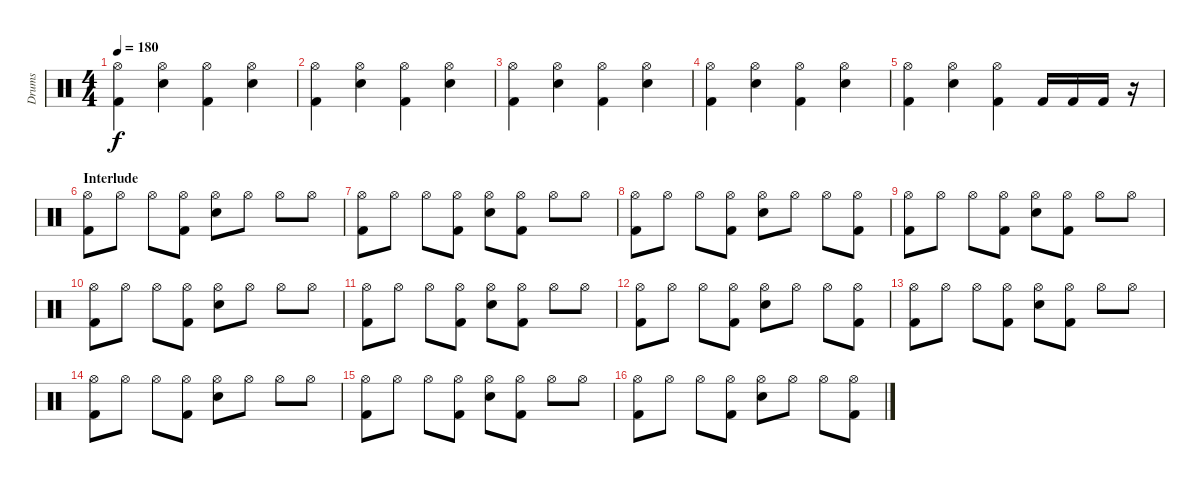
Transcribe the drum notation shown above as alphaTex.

\track ("Drums" "Drums") {instrument percussion}
\staff {score}
\articulation defaults
\ts (4 4)
\tempo 180
\clef neutral
\ks c
("Hi-Hat (open)" "Kick (hit) 2").4{dy f} ("Hi-Hat (open)" "Electric Snare (hit)").4 ("Hi-Hat (open)" "Kick (hit) 2").4 ("Hi-Hat (open)" "Electric Snare (hit)").4 |
("Hi-Hat (open)" "Kick (hit) 2").4 ("Hi-Hat (open)" "Electric Snare (hit)").4 ("Hi-Hat (open)" "Kick (hit) 2").4 ("Hi-Hat (open)" "Electric Snare (hit)").4 |
("Hi-Hat (open)" "Kick (hit) 2").4 ("Hi-Hat (open)" "Electric Snare (hit)").4 ("Hi-Hat (open)" "Kick (hit) 2").4 ("Hi-Hat (open)" "Electric Snare (hit)").4 |
("Hi-Hat (open)" "Kick (hit) 2").4 ("Hi-Hat (open)" "Electric Snare (hit)").4 ("Hi-Hat (open)" "Kick (hit) 2").4 ("Hi-Hat (open)" "Electric Snare (hit)").4 |
("Hi-Hat (open)" "Kick (hit) 2").4 ("Hi-Hat (open)" "Electric Snare (hit)").4 ("Hi-Hat (open)" "Kick (hit) 2").4 "Kick (hit) 2".16 "Kick (hit) 2".16 "Kick (hit) 2".16 r.16 |
\section ("" "Interlude")
("Hi-Hat (open)" "Kick (hit) 2").8 "Hi-Hat (open)".8 "Hi-Hat (open)".8 ("Hi-Hat (open)" "Kick (hit) 2").8 ("Hi-Hat (open)" "Electric Snare (hit)").8 "Hi-Hat (open)".8 "Hi-Hat (open)".8 "Hi-Hat (open)".8 |
("Hi-Hat (open)" "Kick (hit) 2").8 "Hi-Hat (open)".8 "Hi-Hat (open)".8 ("Hi-Hat (open)" "Kick (hit) 2").8 ("Hi-Hat (open)" "Electric Snare (hit)").8 ("Hi-Hat (open)" "Kick (hit) 2").8 "Hi-Hat (open)".8 "Hi-Hat (open)".8 |
("Hi-Hat (open)" "Kick (hit) 2").8 "Hi-Hat (open)".8 "Hi-Hat (open)".8 ("Hi-Hat (open)" "Kick (hit) 2").8 ("Hi-Hat (open)" "Electric Snare (hit)").8 "Hi-Hat (open)".8 "Hi-Hat (open)".8 ("Hi-Hat (open)" "Kick (hit) 2").8 |
("Hi-Hat (open)" "Kick (hit) 2").8 "Hi-Hat (open)".8 "Hi-Hat (open)".8 ("Hi-Hat (open)" "Kick (hit) 2").8 ("Hi-Hat (open)" "Electric Snare (hit)").8 ("Hi-Hat (open)" "Kick (hit) 2").8 "Hi-Hat (open)".8 "Hi-Hat (open)".8 |
("Hi-Hat (open)" "Kick (hit) 2").8 "Hi-Hat (open)".8 "Hi-Hat (open)".8 ("Hi-Hat (open)" "Kick (hit) 2").8 ("Hi-Hat (open)" "Electric Snare (hit)").8 "Hi-Hat (open)".8 "Hi-Hat (open)".8 "Hi-Hat (open)".8 |
("Hi-Hat (open)" "Kick (hit) 2").8 "Hi-Hat (open)".8 "Hi-Hat (open)".8 ("Hi-Hat (open)" "Kick (hit) 2").8 ("Hi-Hat (open)" "Electric Snare (hit)").8 ("Hi-Hat (open)" "Kick (hit) 2").8 "Hi-Hat (open)".8 "Hi-Hat (open)".8 |
("Hi-Hat (open)" "Kick (hit) 2").8 "Hi-Hat (open)".8 "Hi-Hat (open)".8 ("Hi-Hat (open)" "Kick (hit) 2").8 ("Hi-Hat (open)" "Electric Snare (hit)").8 "Hi-Hat (open)".8 "Hi-Hat (open)".8 ("Hi-Hat (open)" "Kick (hit) 2").8 |
("Hi-Hat (open)" "Kick (hit) 2").8 "Hi-Hat (open)".8 "Hi-Hat (open)".8 ("Hi-Hat (open)" "Kick (hit) 2").8 ("Hi-Hat (open)" "Electric Snare (hit)").8 ("Hi-Hat (open)" "Kick (hit) 2").8 "Hi-Hat (open)".8 "Hi-Hat (open)".8 |
("Hi-Hat (open)" "Kick (hit) 2").8 "Hi-Hat (open)".8 "Hi-Hat (open)".8 ("Hi-Hat (open)" "Kick (hit) 2").8 ("Hi-Hat (open)" "Electric Snare (hit)").8 "Hi-Hat (open)".8 "Hi-Hat (open)".8 "Hi-Hat (open)".8 |
("Hi-Hat (open)" "Kick (hit) 2").8 "Hi-Hat (open)".8 "Hi-Hat (open)".8 ("Hi-Hat (open)" "Kick (hit) 2").8 ("Hi-Hat (open)" "Electric Snare (hit)").8 ("Hi-Hat (open)" "Kick (hit) 2").8 "Hi-Hat (open)".8 "Hi-Hat (open)".8 |
("Hi-Hat (open)" "Kick (hit) 2").8 "Hi-Hat (open)".8 "Hi-Hat (open)".8 ("Hi-Hat (open)" "Kick (hit) 2").8 ("Hi-Hat (open)" "Electric Snare (hit)").8 "Hi-Hat (open)".8 "Hi-Hat (open)".8 ("Hi-Hat (open)" "Kick (hit) 2").8
